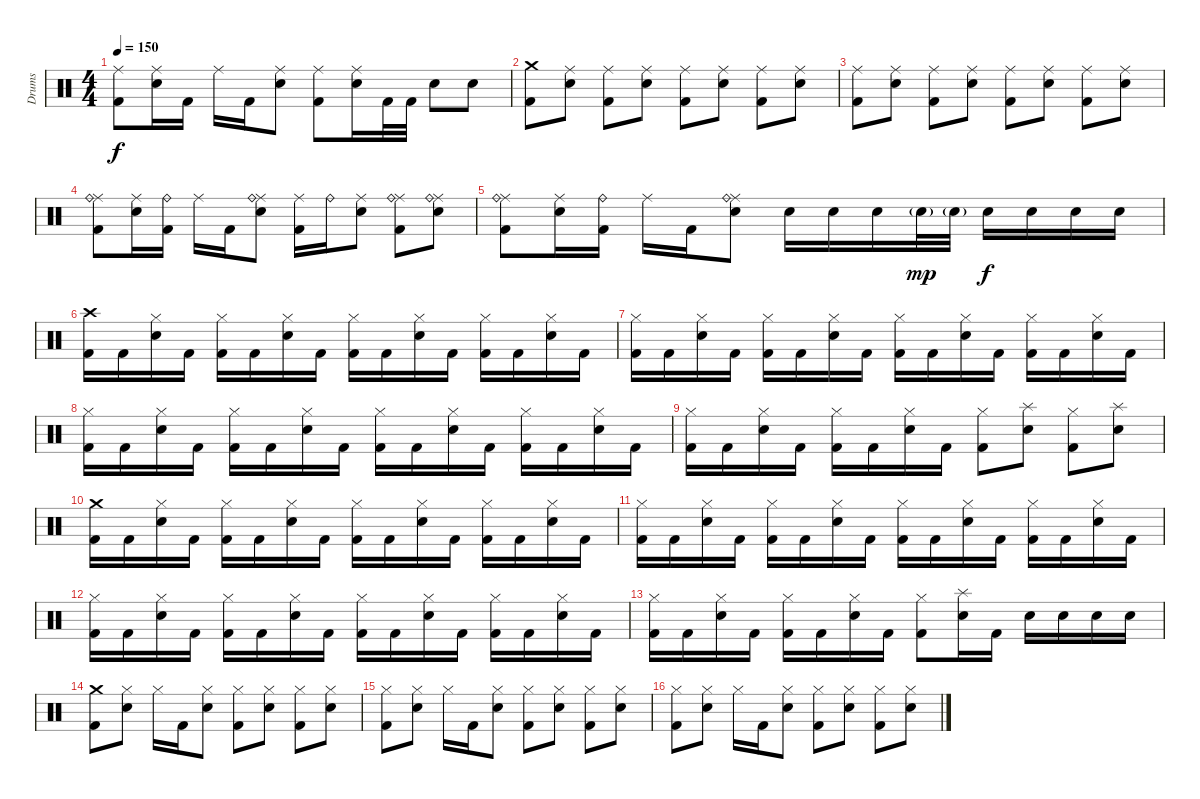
\track ("Drums" "Drums") {instrument percussion}
\staff {score}
\articulation defaults
\ts (4 4)
\tempo 150
\clef neutral
\ks c
("Ride (middle)" "Kick (hit) 2").8{dy f} ("Ride (middle)" "Snare (hit) 2").16 "Kick (hit) 2".16 "Ride (middle)".16 "Kick (hit) 2".16 ("Ride (middle)" "Snare (hit) 2").8 ("Ride (middle)" "Kick (hit) 2").8 ("Ride (middle)" "Snare (hit) 2").16 "Kick (hit) 2".32 "Kick (hit) 2".32 "Snare (hit) 2".8 "Snare (hit) 2".8 |
("Crash medium (hit)" "Kick (hit) 2").8 ("Ride (middle)" "Snare (hit) 2").8 ("Ride (middle)" "Kick (hit) 2").8 ("Ride (middle)" "Snare (hit) 2").8 ("Ride (middle)" "Kick (hit) 2").8 ("Ride (middle)" "Snare (hit) 2").8 ("Ride (middle)" "Kick (hit) 2").8 ("Ride (middle)" "Snare (hit) 2").8 |
("Ride (middle)" "Kick (hit) 2").8 ("Ride (middle)" "Snare (hit) 2").8 ("Ride (middle)" "Kick (hit) 2").8 ("Ride (middle)" "Snare (hit) 2").8 ("Ride (middle)" "Kick (hit) 2").8 ("Ride (middle)" "Snare (hit) 2").8 ("Ride (middle)" "Kick (hit) 2").8 ("Ride (middle)" "Snare (hit) 2").8 |
("Ride (middle)" "Ride (bell)" "Kick (hit) 2").8 ("Ride (middle)" "Snare (hit) 2").16 ("Ride (bell)" "Kick (hit) 2").16 "Ride (middle)".16 "Kick (hit) 2".16 ("Ride (middle)" "Ride (bell)" "Snare (hit) 2").8 ("Ride (middle)" "Kick (hit) 2").16 "Ride (bell)".16 ("Ride (middle)" "Snare (hit) 2").8 ("Ride (middle)" "Ride (bell)" "Kick (hit) 2").8 ("Ride (middle)" "Ride (bell)" "Snare (hit) 2").8 |
("Ride (middle)" "Ride (bell)" "Kick (hit) 2").8 ("Ride (middle)" "Snare (hit) 2").16 ("Ride (bell)" "Kick (hit) 2").16 "Ride (middle)".16 "Kick (hit) 2".16 ("Ride (middle)" "Ride (bell)" "Snare (hit) 2").8 "Snare (hit) 2".16 "Snare (hit) 2".16 "Snare (hit) 2".16 "Snare (hit) 2"{g}.32{dy mp} "Snare (hit) 2"{g}.32 "Snare (hit) 2".16{dy f} "Snare (hit) 2".16 "Snare (hit) 2".16 "Snare (hit) 2".16 |
("Crash high (hit)" "Kick (hit) 2").16 "Kick (hit) 2".16 ("Hi-Hat (closed)" "Snare (hit) 2").16 "Kick (hit) 2".16 ("Hi-Hat (closed)" "Kick (hit) 2").16 "Kick (hit) 2".16 ("Hi-Hat (closed)" "Snare (hit) 2").16 "Kick (hit) 2".16 ("Hi-Hat (closed)" "Kick (hit) 2").16 "Kick (hit) 2".16 ("Hi-Hat (closed)" "Snare (hit) 2").16 "Kick (hit) 2".16 ("Hi-Hat (closed)" "Kick (hit) 2").16 "Kick (hit) 2".16 ("Hi-Hat (closed)" "Snare (hit) 2").16 "Kick (hit) 2".16 |
("Hi-Hat (closed)" "Kick (hit) 2").16 "Kick (hit) 2".16 ("Hi-Hat (closed)" "Snare (hit) 2").16 "Kick (hit) 2".16 ("Hi-Hat (closed)" "Kick (hit) 2").16 "Kick (hit) 2".16 ("Hi-Hat (closed)" "Snare (hit) 2").16 "Kick (hit) 2".16 ("Hi-Hat (closed)" "Kick (hit) 2").16 "Kick (hit) 2".16 ("Hi-Hat (closed)" "Snare (hit) 2").16 "Kick (hit) 2".16 ("Hi-Hat (closed)" "Kick (hit) 2").16 "Kick (hit) 2".16 ("Hi-Hat (closed)" "Snare (hit) 2").16 "Kick (hit) 2".16 |
("Hi-Hat (closed)" "Kick (hit) 2").16 "Kick (hit) 2".16 ("Hi-Hat (closed)" "Snare (hit) 2").16 "Kick (hit) 2".16 ("Hi-Hat (closed)" "Kick (hit) 2").16 "Kick (hit) 2".16 ("Hi-Hat (closed)" "Snare (hit) 2").16 "Kick (hit) 2".16 ("Hi-Hat (closed)" "Kick (hit) 2").16 "Kick (hit) 2".16 ("Hi-Hat (closed)" "Snare (hit) 2").16 "Kick (hit) 2".16 ("Hi-Hat (closed)" "Kick (hit) 2").16 "Kick (hit) 2".16 ("Hi-Hat (closed)" "Snare (hit) 2").16 "Kick (hit) 2".16 |
("Hi-Hat (closed)" "Kick (hit) 2").16 "Kick (hit) 2".16 ("Hi-Hat (closed)" "Snare (hit) 2").16 "Kick (hit) 2".16 ("Hi-Hat (closed)" "Kick (hit) 2").16 "Kick (hit) 2".16 ("Hi-Hat (closed)" "Snare (hit) 2").16 "Kick (hit) 2".16 ("Hi-Hat (closed)" "Kick (hit) 2").8 ("Splash (hit)" "Snare (hit) 2").8 ("Hi-Hat (closed)" "Kick (hit) 2").8 ("Splash (hit)" "Snare (hit) 2").8 |
("Crash medium (hit)" "Kick (hit) 2").16 "Kick (hit) 2".16 ("Hi-Hat (closed)" "Snare (hit) 2").16 "Kick (hit) 2".16 ("Hi-Hat (closed)" "Kick (hit) 2").16 "Kick (hit) 2".16 ("Hi-Hat (closed)" "Snare (hit) 2").16 "Kick (hit) 2".16 ("Hi-Hat (closed)" "Kick (hit) 2").16 "Kick (hit) 2".16 ("Hi-Hat (closed)" "Snare (hit) 2").16 "Kick (hit) 2".16 ("Hi-Hat (closed)" "Kick (hit) 2").16 "Kick (hit) 2".16 ("Hi-Hat (closed)" "Snare (hit) 2").16 "Kick (hit) 2".16 |
("Hi-Hat (closed)" "Kick (hit) 2").16 "Kick (hit) 2".16 ("Hi-Hat (closed)" "Snare (hit) 2").16 "Kick (hit) 2".16 ("Hi-Hat (closed)" "Kick (hit) 2").16 "Kick (hit) 2".16 ("Hi-Hat (closed)" "Snare (hit) 2").16 "Kick (hit) 2".16 ("Hi-Hat (closed)" "Kick (hit) 2").16 "Kick (hit) 2".16 ("Hi-Hat (closed)" "Snare (hit) 2").16 "Kick (hit) 2".16 ("Hi-Hat (closed)" "Kick (hit) 2").16 "Kick (hit) 2".16 ("Hi-Hat (closed)" "Snare (hit) 2").16 "Kick (hit) 2".16 |
("Hi-Hat (closed)" "Kick (hit) 2").16 "Kick (hit) 2".16 ("Hi-Hat (closed)" "Snare (hit) 2").16 "Kick (hit) 2".16 ("Hi-Hat (closed)" "Kick (hit) 2").16 "Kick (hit) 2".16 ("Hi-Hat (closed)" "Snare (hit) 2").16 "Kick (hit) 2".16 ("Hi-Hat (closed)" "Kick (hit) 2").16 "Kick (hit) 2".16 ("Hi-Hat (closed)" "Snare (hit) 2").16 "Kick (hit) 2".16 ("Hi-Hat (closed)" "Kick (hit) 2").16 "Kick (hit) 2".16 ("Hi-Hat (closed)" "Snare (hit) 2").16 "Kick (hit) 2".16 |
("Hi-Hat (closed)" "Kick (hit) 2").16 "Kick (hit) 2".16 ("Hi-Hat (closed)" "Snare (hit) 2").16 "Kick (hit) 2".16 ("Hi-Hat (closed)" "Kick (hit) 2").16 "Kick (hit) 2".16 ("Hi-Hat (closed)" "Snare (hit) 2").16 "Kick (hit) 2".16 ("Hi-Hat (closed)" "Kick (hit) 2").8 ("Splash (hit)" "Snare (hit) 2").16 "Kick (hit) 2".16 "Snare (hit) 2".16 "Snare (hit) 2".16 "Snare (hit) 2".16 "Snare (hit) 2".16 |
("Crash medium (hit)" "Kick (hit) 2").8 ("Hi-Hat (closed)" "Snare (hit) 2").8 "Hi-Hat (closed)".16 "Kick (hit) 2".16 ("Hi-Hat (closed)" "Snare (hit) 2").8 ("Hi-Hat (closed)" "Kick (hit) 2").8 ("Hi-Hat (closed)" "Snare (hit) 2").8 ("Hi-Hat (closed)" "Kick (hit) 2").8 ("Hi-Hat (closed)" "Snare (hit) 2").8 |
("Hi-Hat (closed)" "Kick (hit) 2").8 ("Hi-Hat (closed)" "Snare (hit) 2").8 "Hi-Hat (closed)".16 "Kick (hit) 2".16 ("Hi-Hat (closed)" "Snare (hit) 2").8 ("Hi-Hat (closed)" "Kick (hit) 2").8 ("Hi-Hat (closed)" "Snare (hit) 2").8 ("Hi-Hat (closed)" "Kick (hit) 2").8 ("Hi-Hat (closed)" "Snare (hit) 2").8 |
("Hi-Hat (closed)" "Kick (hit) 2").8 ("Hi-Hat (closed)" "Snare (hit) 2").8 "Hi-Hat (closed)".16 "Kick (hit) 2".16 ("Hi-Hat (closed)" "Snare (hit) 2").8 ("Hi-Hat (closed)" "Kick (hit) 2").8 ("Hi-Hat (closed)" "Snare (hit) 2").8 ("Hi-Hat (closed)" "Kick (hit) 2").8 ("Hi-Hat (closed)" "Snare (hit) 2").8
